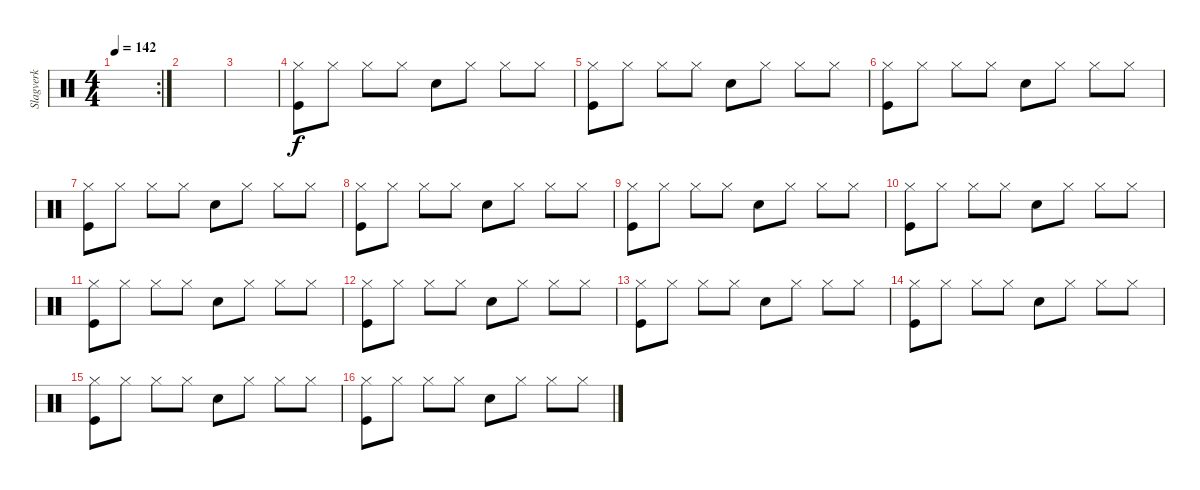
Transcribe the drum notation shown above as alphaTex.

\track ("Slagverk" "Slagverk") {instrument percussion}
\staff {score}
\articulation defaults
\rc 2
\ts (4 4)
\tempo 142
\clef neutral
\ks c
|
|
|
("Hi-Hat (closed)" "Kick (hit)").8 "Hi-Hat (closed)".8 "Hi-Hat (closed)".8 "Hi-Hat (closed)".8 "Snare (hit) 2".8 "Hi-Hat (closed)".8 "Hi-Hat (closed)".8 "Hi-Hat (closed)".8 |
("Hi-Hat (closed)" "Kick (hit)").8 "Hi-Hat (closed)".8 "Hi-Hat (closed)".8 "Hi-Hat (closed)".8 "Snare (hit) 2".8 "Hi-Hat (closed)".8 "Hi-Hat (closed)".8 "Hi-Hat (closed)".8 |
("Hi-Hat (closed)" "Kick (hit)").8 "Hi-Hat (closed)".8 "Hi-Hat (closed)".8 "Hi-Hat (closed)".8 "Snare (hit) 2".8 "Hi-Hat (closed)".8 "Hi-Hat (closed)".8 "Hi-Hat (closed)".8 |
("Hi-Hat (closed)" "Kick (hit)").8 "Hi-Hat (closed)".8 "Hi-Hat (closed)".8 "Hi-Hat (closed)".8 "Snare (hit) 2".8 "Hi-Hat (closed)".8 "Hi-Hat (closed)".8 "Hi-Hat (closed)".8 |
("Hi-Hat (closed)" "Kick (hit)").8 "Hi-Hat (closed)".8 "Hi-Hat (closed)".8 "Hi-Hat (closed)".8 "Snare (hit) 2".8 "Hi-Hat (closed)".8 "Hi-Hat (closed)".8 "Hi-Hat (closed)".8 |
("Hi-Hat (closed)" "Kick (hit)").8 "Hi-Hat (closed)".8 "Hi-Hat (closed)".8 "Hi-Hat (closed)".8 "Snare (hit) 2".8 "Hi-Hat (closed)".8 "Hi-Hat (closed)".8 "Hi-Hat (closed)".8 |
("Hi-Hat (closed)" "Kick (hit)").8 "Hi-Hat (closed)".8 "Hi-Hat (closed)".8 "Hi-Hat (closed)".8 "Snare (hit) 2".8 "Hi-Hat (closed)".8 "Hi-Hat (closed)".8 "Hi-Hat (closed)".8 |
("Hi-Hat (closed)" "Kick (hit)").8 "Hi-Hat (closed)".8 "Hi-Hat (closed)".8 "Hi-Hat (closed)".8 "Snare (hit) 2".8 "Hi-Hat (closed)".8 "Hi-Hat (closed)".8 "Hi-Hat (closed)".8 |
("Hi-Hat (closed)" "Kick (hit)").8 "Hi-Hat (closed)".8 "Hi-Hat (closed)".8 "Hi-Hat (closed)".8 "Snare (hit) 2".8 "Hi-Hat (closed)".8 "Hi-Hat (closed)".8 "Hi-Hat (closed)".8 |
("Hi-Hat (closed)" "Kick (hit)").8 "Hi-Hat (closed)".8 "Hi-Hat (closed)".8 "Hi-Hat (closed)".8 "Snare (hit) 2".8 "Hi-Hat (closed)".8 "Hi-Hat (closed)".8 "Hi-Hat (closed)".8 |
("Hi-Hat (closed)" "Kick (hit)").8 "Hi-Hat (closed)".8 "Hi-Hat (closed)".8 "Hi-Hat (closed)".8 "Snare (hit) 2".8 "Hi-Hat (closed)".8 "Hi-Hat (closed)".8 "Hi-Hat (closed)".8 |
("Hi-Hat (closed)" "Kick (hit)").8 "Hi-Hat (closed)".8 "Hi-Hat (closed)".8 "Hi-Hat (closed)".8 "Snare (hit) 2".8 "Hi-Hat (closed)".8 "Hi-Hat (closed)".8 "Hi-Hat (closed)".8 |
("Hi-Hat (closed)" "Kick (hit)").8 "Hi-Hat (closed)".8 "Hi-Hat (closed)".8 "Hi-Hat (closed)".8 "Snare (hit) 2".8 "Hi-Hat (closed)".8 "Hi-Hat (closed)".8 "Hi-Hat (closed)".8
